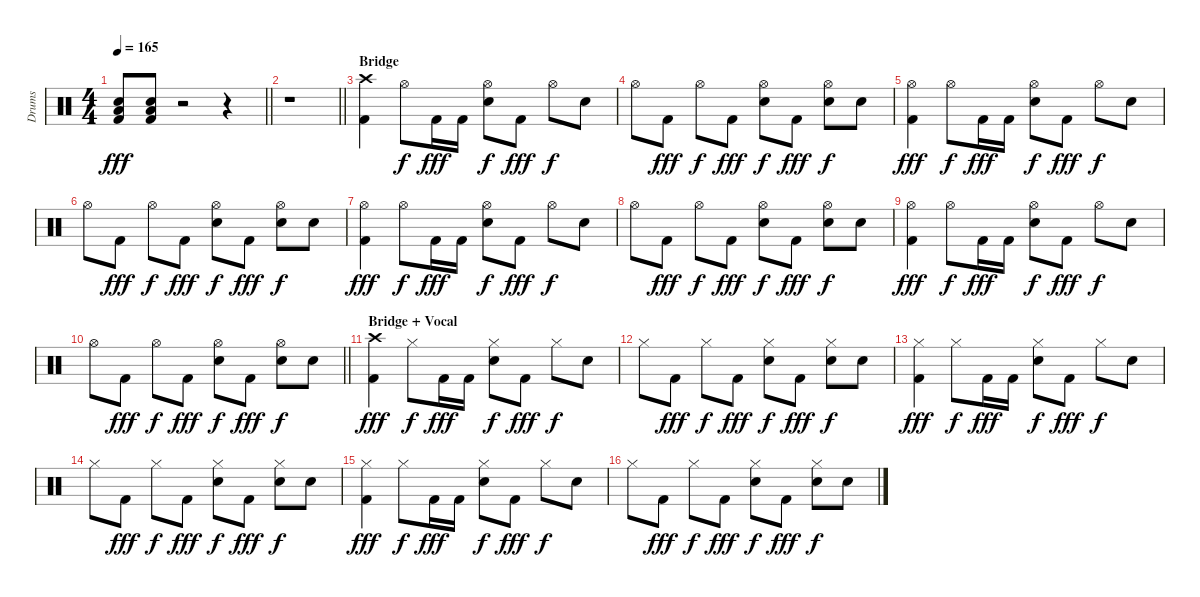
\track ("Drums" "Drums") {instrument percussion}
\staff {score}
\articulation defaults
\ts (4 4)
\tempo 165
\clef neutral
\barLineRight lightlight
\ks c
("Snare (hit) 2" "Low Floor Tom (hit)" "Kick (hit) 2").8{dy fff} ("Snare (hit) 2" "Low Floor Tom (hit)" "Kick (hit) 2").8 r.2 r.4 |
\barLineRight lightlight
r.1 |
\section ("" "Bridge")
("Crash high (hit)" "Kick (hit) 2").4 "Hi-Hat (open)".8{dy f} "Kick (hit) 2".16{dy fff} "Kick (hit) 2".16 ("Hi-Hat (open)" "Snare (hit) 2").8{dy f} "Kick (hit) 2".8{dy fff} "Hi-Hat (open)".8{dy f} "Snare (hit) 2".8 |
"Hi-Hat (open)".8 "Kick (hit) 2".8{dy fff} "Hi-Hat (open)".8{dy f} "Kick (hit) 2".8{dy fff} ("Hi-Hat (open)" "Snare (hit) 2").8{dy f} "Kick (hit) 2".8{dy fff} ("Hi-Hat (open)" "Snare (hit) 2").8{dy f} "Snare (hit) 2".8 |
("Hi-Hat (open)" "Kick (hit) 2").4{dy fff} "Hi-Hat (open)".8{dy f} "Kick (hit) 2".16{dy fff} "Kick (hit) 2".16 ("Hi-Hat (open)" "Snare (hit) 2").8{dy f} "Kick (hit) 2".8{dy fff} "Hi-Hat (open)".8{dy f} "Snare (hit) 2".8 |
"Hi-Hat (open)".8 "Kick (hit) 2".8{dy fff} "Hi-Hat (open)".8{dy f} "Kick (hit) 2".8{dy fff} ("Hi-Hat (open)" "Snare (hit) 2").8{dy f} "Kick (hit) 2".8{dy fff} ("Hi-Hat (open)" "Snare (hit) 2").8{dy f} "Snare (hit) 2".8 |
("Hi-Hat (open)" "Kick (hit) 2").4{dy fff} "Hi-Hat (open)".8{dy f} "Kick (hit) 2".16{dy fff} "Kick (hit) 2".16 ("Hi-Hat (open)" "Snare (hit) 2").8{dy f} "Kick (hit) 2".8{dy fff} "Hi-Hat (open)".8{dy f} "Snare (hit) 2".8 |
"Hi-Hat (open)".8 "Kick (hit) 2".8{dy fff} "Hi-Hat (open)".8{dy f} "Kick (hit) 2".8{dy fff} ("Hi-Hat (open)" "Snare (hit) 2").8{dy f} "Kick (hit) 2".8{dy fff} ("Hi-Hat (open)" "Snare (hit) 2").8{dy f} "Snare (hit) 2".8 |
("Hi-Hat (open)" "Kick (hit) 2").4{dy fff} "Hi-Hat (open)".8{dy f} "Kick (hit) 2".16{dy fff} "Kick (hit) 2".16 ("Hi-Hat (open)" "Snare (hit) 2").8{dy f} "Kick (hit) 2".8{dy fff} "Hi-Hat (open)".8{dy f} "Snare (hit) 2".8 |
\barLineRight lightlight "Hi-Hat (open)".8 "Kick (hit) 2".8{dy fff} "Hi-Hat (open)".8{dy f} "Kick (hit) 2".8{dy fff}
("Hi-Hat (open)" "Snare (hit) 2").8{dy f} "Kick (hit) 2".8{dy fff} ("Hi-Hat (open)" "Snare (hit) 2").8{dy f} "Snare (hit) 2".8 |
\section ("" "Bridge + Vocal")
("Crash high (hit)" "Kick (hit) 2").4{dy fff} "Hi-Hat (closed)".8{dy f} "Kick (hit) 2".16{dy fff} "Kick (hit) 2".16 ("Hi-Hat (closed)" "Snare (hit) 2").8{dy f} "Kick (hit) 2".8{dy fff} "Hi-Hat (closed)".8{dy f} "Snare (hit) 2".8 |
"Hi-Hat (closed)".8 "Kick (hit) 2".8{dy fff} "Hi-Hat (closed)".8{dy f} "Kick (hit) 2".8{dy fff} ("Hi-Hat (closed)" "Snare (hit) 2").8{dy f} "Kick (hit) 2".8{dy fff} ("Hi-Hat (closed)" "Snare (hit) 2").8{dy f} "Snare (hit) 2".8 |
("Hi-Hat (closed)" "Kick (hit) 2").4{dy fff} "Hi-Hat (closed)".8{dy f} "Kick (hit) 2".16{dy fff} "Kick (hit) 2".16 ("Hi-Hat (closed)" "Snare (hit) 2").8{dy f} "Kick (hit) 2".8{dy fff} "Hi-Hat (closed)".8{dy f} "Snare (hit) 2".8 |
"Hi-Hat (closed)".8 "Kick (hit) 2".8{dy fff} "Hi-Hat (closed)".8{dy f} "Kick (hit) 2".8{dy fff} ("Hi-Hat (closed)" "Snare (hit) 2").8{dy f} "Kick (hit) 2".8{dy fff} ("Hi-Hat (closed)" "Snare (hit) 2").8{dy f} "Snare (hit) 2".8 |
("Hi-Hat (closed)" "Kick (hit) 2").4{dy fff} "Hi-Hat (closed)".8{dy f} "Kick (hit) 2".16{dy fff} "Kick (hit) 2".16 ("Hi-Hat (closed)" "Snare (hit) 2").8{dy f} "Kick (hit) 2".8{dy fff} "Hi-Hat (closed)".8{dy f} "Snare (hit) 2".8 |
"Hi-Hat (closed)".8 "Kick (hit) 2".8{dy fff} "Hi-Hat (closed)".8{dy f} "Kick (hit) 2".8{dy fff} ("Hi-Hat (closed)" "Snare (hit) 2").8{dy f} "Kick (hit) 2".8{dy fff} ("Hi-Hat (closed)" "Snare (hit) 2").8{dy f} "Snare (hit) 2".8
